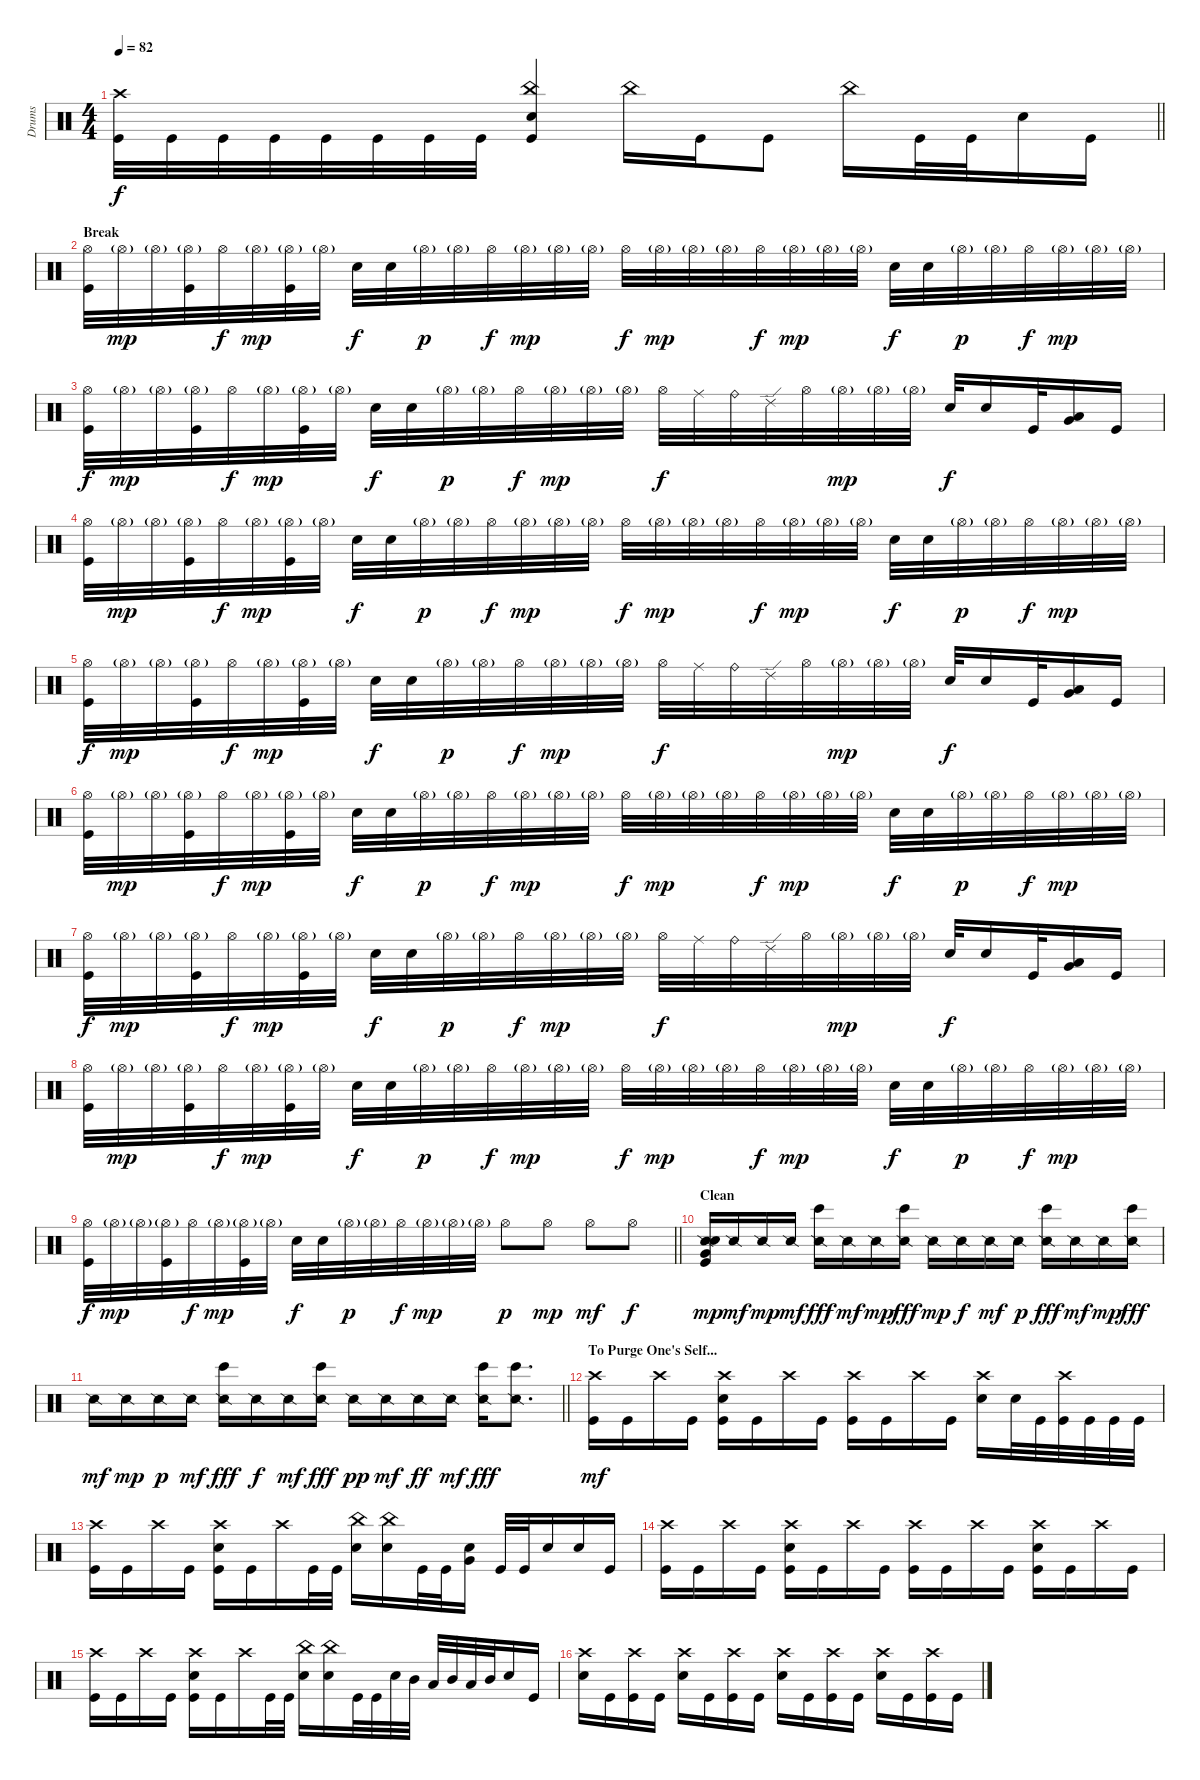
\track ("Drums" "Drums") {instrument percussion bank 177}
\staff {score}
\articulation defaults
\ts (4 4)
\tempo 82
\clef neutral
\barLineRight lightlight
\ks c
("Crash high (hit)" "Kick (hit)").32{dy f} "Kick (hit)".32 "Kick (hit)".32 "Kick (hit)".32 "Kick (hit)".32 "Kick (hit)".32 "Kick (hit)".32 "Kick (hit)".32 ("China (hit)" "Snare (hit) 2" "Kick (hit)").4 "China (hit)".16 "Kick (hit)".16 "Kick (hit)".8 "China (hit)".16 "Kick (hit)".32 "Kick (hit)".32 "Snare (hit) 2".16 "Kick (hit)".16 |
\section ("" "Break")
("Hi-Hat (open)" "Kick (hit)").32 "Hi-Hat (open)"{g}.32{dy mp} "Hi-Hat (open)"{g}.32 ("Hi-Hat (open)"{g} "Kick (hit)").32 "Hi-Hat (open)".32{dy f} "Hi-Hat (open)"{g}.32{dy mp} ("Hi-Hat (open)"{g} "Kick (hit)").32 "Hi-Hat (open)"{g}.32 "Snare (hit) 2".32{dy f} "Snare (hit) 2".32 "Hi-Hat (open)"{g}.32{dy p} "Hi-Hat (open)"{g}.32 "Hi-Hat (open)".32{dy f} "Hi-Hat (open)"{g}.32{dy mp} "Hi-Hat (open)"{g}.32 "Hi-Hat (open)"{g}.32 "Hi-Hat (open)".32{dy f} "Hi-Hat (open)"{g}.32{dy mp} "Hi-Hat (open)"{g}.32 "Hi-Hat (open)"{g}.32 "Hi-Hat (open)".32{dy f} "Hi-Hat (open)"{g}.32{dy mp} "Hi-Hat (open)"{g}.32 "Hi-Hat (open)"{g}.32 "Snare (hit) 2".32{dy f} "Snare (hit) 2".32 "Hi-Hat (open)"{g}.32{dy p} "Hi-Hat (open)"{g}.32 "Hi-Hat (open)".32{dy f} "Hi-Hat (open)"{g}.32{dy mp} "Hi-Hat (open)"{g}.32 "Hi-Hat (open)"{g}.32 |
("Hi-Hat (open)" "Kick (hit)").32{dy f} "Hi-Hat (open)"{g}.32{dy mp} "Hi-Hat (open)"{g}.32 ("Hi-Hat (open)"{g} "Kick (hit)").32 "Hi-Hat (open)".32{dy f} "Hi-Hat (open)"{g}.32{dy mp} ("Hi-Hat (open)"{g} "Kick (hit)").32 "Hi-Hat (open)"{g}.32 "Snare (hit) 2".32{dy f} "Snare (hit) 2".32 "Hi-Hat (open)"{g}.32{dy p} "Hi-Hat (open)"{g}.32 "Hi-Hat (open)".32{dy f} "Hi-Hat (open)"{g}.32{dy mp} "Hi-Hat (open)"{g}.32 "Hi-Hat (open)"{g}.32 "Hi-Hat (open)".32{dy f} "Ride (middle)".32 "Ride (bell)".32 "Ride (edge) 2".32 "Hi-Hat (open)".32 "Hi-Hat (open)"{g}.32{dy mp} "Hi-Hat (open)"{g}.32 "Hi-Hat (open)"{g}.32 "Snare (hit) 2".32{dy f} "Snare (hit) 2".16 "Kick (hit)".32 ("Low Tom (hit)" "Very Low Tom (hit)").16 "Kick (hit)".16 |
("Hi-Hat (open)" "Kick (hit)").32 "Hi-Hat (open)"{g}.32{dy mp} "Hi-Hat (open)"{g}.32 ("Hi-Hat (open)"{g} "Kick (hit)").32 "Hi-Hat (open)".32{dy f} "Hi-Hat (open)"{g}.32{dy mp} ("Hi-Hat (open)"{g} "Kick (hit)").32 "Hi-Hat (open)"{g}.32 "Snare (hit) 2".32{dy f} "Snare (hit) 2".32 "Hi-Hat (open)"{g}.32{dy p} "Hi-Hat (open)"{g}.32 "Hi-Hat (open)".32{dy f} "Hi-Hat (open)"{g}.32{dy mp} "Hi-Hat (open)"{g}.32 "Hi-Hat (open)"{g}.32 "Hi-Hat (open)".32{dy f} "Hi-Hat (open)"{g}.32{dy mp} "Hi-Hat (open)"{g}.32 "Hi-Hat (open)"{g}.32 "Hi-Hat (open)".32{dy f} "Hi-Hat (open)"{g}.32{dy mp} "Hi-Hat (open)"{g}.32 "Hi-Hat (open)"{g}.32 "Snare (hit) 2".32{dy f} "Snare (hit) 2".32 "Hi-Hat (open)"{g}.32{dy p} "Hi-Hat (open)"{g}.32 "Hi-Hat (open)".32{dy f} "Hi-Hat (open)"{g}.32{dy mp} "Hi-Hat (open)"{g}.32 "Hi-Hat (open)"{g}.32 |
("Hi-Hat (open)" "Kick (hit)").32{dy f} "Hi-Hat (open)"{g}.32{dy mp} "Hi-Hat (open)"{g}.32 ("Hi-Hat (open)"{g} "Kick (hit)").32 "Hi-Hat (open)".32{dy f} "Hi-Hat (open)"{g}.32{dy mp} ("Hi-Hat (open)"{g} "Kick (hit)").32 "Hi-Hat (open)"{g}.32 "Snare (hit) 2".32{dy f} "Snare (hit) 2".32 "Hi-Hat (open)"{g}.32{dy p} "Hi-Hat (open)"{g}.32 "Hi-Hat (open)".32{dy f} "Hi-Hat (open)"{g}.32{dy mp} "Hi-Hat (open)"{g}.32 "Hi-Hat (open)"{g}.32 "Hi-Hat (open)".32{dy f} "Ride (middle)".32 "Ride (bell)".32 "Ride (edge) 2".32 "Hi-Hat (open)".32 "Hi-Hat (open)"{g}.32{dy mp} "Hi-Hat (open)"{g}.32 "Hi-Hat (open)"{g}.32 "Snare (hit) 2".32{dy f} "Snare (hit) 2".16 "Kick (hit)".32 ("Low Tom (hit)" "Very Low Tom (hit)").16 "Kick (hit)".16 |
("Hi-Hat (open)" "Kick (hit)").32 "Hi-Hat (open)"{g}.32{dy mp} "Hi-Hat (open)"{g}.32 ("Hi-Hat (open)"{g} "Kick (hit)").32 "Hi-Hat (open)".32{dy f} "Hi-Hat (open)"{g}.32{dy mp} ("Hi-Hat (open)"{g} "Kick (hit)").32 "Hi-Hat (open)"{g}.32 "Snare (hit) 2".32{dy f} "Snare (hit) 2".32 "Hi-Hat (open)"{g}.32{dy p} "Hi-Hat (open)"{g}.32 "Hi-Hat (open)".32{dy f} "Hi-Hat (open)"{g}.32{dy mp} "Hi-Hat (open)"{g}.32 "Hi-Hat (open)"{g}.32 "Hi-Hat (open)".32{dy f} "Hi-Hat (open)"{g}.32{dy mp} "Hi-Hat (open)"{g}.32 "Hi-Hat (open)"{g}.32 "Hi-Hat (open)".32{dy f} "Hi-Hat (open)"{g}.32{dy mp} "Hi-Hat (open)"{g}.32 "Hi-Hat (open)"{g}.32 "Snare (hit) 2".32{dy f} "Snare (hit) 2".32 "Hi-Hat (open)"{g}.32{dy p} "Hi-Hat (open)"{g}.32 "Hi-Hat (open)".32{dy f} "Hi-Hat (open)"{g}.32{dy mp} "Hi-Hat (open)"{g}.32 "Hi-Hat (open)"{g}.32 |
("Hi-Hat (open)" "Kick (hit)").32{dy f} "Hi-Hat (open)"{g}.32{dy mp} "Hi-Hat (open)"{g}.32 ("Hi-Hat (open)"{g} "Kick (hit)").32 "Hi-Hat (open)".32{dy f} "Hi-Hat (open)"{g}.32{dy mp} ("Hi-Hat (open)"{g} "Kick (hit)").32 "Hi-Hat (open)"{g}.32 "Snare (hit) 2".32{dy f} "Snare (hit) 2".32 "Hi-Hat (open)"{g}.32{dy p} "Hi-Hat (open)"{g}.32 "Hi-Hat (open)".32{dy f} "Hi-Hat (open)"{g}.32{dy mp} "Hi-Hat (open)"{g}.32 "Hi-Hat (open)"{g}.32 "Hi-Hat (open)".32{dy f} "Ride (middle)".32 "Ride (bell)".32 "Ride (edge) 2".32 "Hi-Hat (open)".32 "Hi-Hat (open)"{g}.32{dy mp} "Hi-Hat (open)"{g}.32 "Hi-Hat (open)"{g}.32 "Snare (hit) 2".32{dy f} "Snare (hit) 2".16 "Kick (hit)".32 ("Low Tom (hit)" "Very Low Tom (hit)").16 "Kick (hit)".16 |
("Hi-Hat (open)" "Kick (hit)").32 "Hi-Hat (open)"{g}.32{dy mp} "Hi-Hat (open)"{g}.32 ("Hi-Hat (open)"{g} "Kick (hit)").32 "Hi-Hat (open)".32{dy f} "Hi-Hat (open)"{g}.32{dy mp} ("Hi-Hat (open)"{g} "Kick (hit)").32 "Hi-Hat (open)"{g}.32 "Snare (hit) 2".32{dy f} "Snare (hit) 2".32 "Hi-Hat (open)"{g}.32{dy p} "Hi-Hat (open)"{g}.32 "Hi-Hat (open)".32{dy f} "Hi-Hat (open)"{g}.32{dy mp} "Hi-Hat (open)"{g}.32 "Hi-Hat (open)"{g}.32 "Hi-Hat (open)".32{dy f} "Hi-Hat (open)"{g}.32{dy mp} "Hi-Hat (open)"{g}.32 "Hi-Hat (open)"{g}.32 "Hi-Hat (open)".32{dy f} "Hi-Hat (open)"{g}.32{dy mp} "Hi-Hat (open)"{g}.32 "Hi-Hat (open)"{g}.32 "Snare (hit) 2".32{dy f} "Snare (hit) 2".32 "Hi-Hat (open)"{g}.32{dy p} "Hi-Hat (open)"{g}.32 "Hi-Hat (open)".32{dy f} "Hi-Hat (open)"{g}.32{dy mp} "Hi-Hat (open)"{g}.32 "Hi-Hat (open)"{g}.32 |
\barLineRight lightlight
("Hi-Hat (open)" "Kick (hit)").32{dy f} "Hi-Hat (open)"{g}.32{dy mp} "Hi-Hat (open)"{g}.32 ("Hi-Hat (open)"{g} "Kick (hit)").32 "Hi-Hat (open)".32{dy f} "Hi-Hat (open)"{g}.32{dy mp} ("Hi-Hat (open)"{g} "Kick (hit)").32 "Hi-Hat (open)"{g}.32 "Snare (hit) 2".32{dy f} "Snare (hit) 2".32 "Hi-Hat (open)"{g}.32{dy p} "Hi-Hat (open)"{g}.32 "Hi-Hat (open)".32{dy f} "Hi-Hat (open)"{g}.32{dy mp} "Hi-Hat (open)"{g}.32 "Hi-Hat (open)"{g}.32 "Hi-Hat (open)".8{dy p} "Hi-Hat (open)".8{dy mp} "Hi-Hat (open)".8{dy mf} "Hi-Hat (open)".8{dy f} |
\section ("" "Clean")
("Snare (side stick) 2" "Very Low Tom (hit)" "Snare (hit) 2" "Kick (hit)").16{dy mp} "Snare (side stick) 2".16{dy mf} "Snare (side stick) 2".16{dy mp balance 0} "Snare (side stick) 2".16{dy mf balance 16} ("Snare (side stick) 2" "Bongo High (hit)").16{dy fff balance 0} "Snare (side stick) 2".16{dy mf balance 16} "Snare (side stick) 2".16{dy mp balance 0} ("Snare (side stick) 2" "Bongo High (hit)").16{dy fff balance 16} "Snare (side stick) 2".16{dy mp balance 0} "Snare (side stick) 2".16{dy f balance 16} "Snare (side stick) 2".16{dy mf balance 0} "Snare (side stick) 2".16{dy p balance 16} ("Snare (side stick) 2" "Bongo High (hit)").16{dy fff balance 0} "Snare (side stick) 2".16{dy mf balance 16} "Snare (side stick) 2".16{dy mp balance 0} ("Snare (side stick) 2" "Bongo High (hit)").16{dy fff balance 16} |
\barLineRight lightlight "Snare (side stick) 2".16{dy mf balance 0} "Snare (side stick) 2".16{dy mp balance 16} "Snare (side stick) 2".16{dy p balance 0} "Snare (side stick) 2".16{dy mf balance 16}
("Snare (side stick) 2" "Bongo High (hit)").16{dy fff balance 0} "Snare (side stick) 2".16{dy f balance 16} "Snare (side stick) 2".16{dy mf balance 0} ("Snare (side stick) 2" "Bongo High (hit)").16{dy fff balance 16} "Snare (side stick) 2".16{dy pp balance 0} "Snare (side stick) 2".16{dy mf balance 16} "Snare (side stick) 2".16{dy ff balance 0} "Snare (side stick) 2".16{dy mf balance 16} ("Snare (side stick) 2" "Bongo High (hit)").16{dy fff balance 0} ("Snare (side stick) 2" "Bongo High (hit)").8{d balance 16} |
\section ("" "To Purge One's Self...")
("Crash high (hit)" "Kick (hit)").16{dy mf} "Kick (hit)".16 "Crash high (hit)".16 "Kick (hit)".16 ("Crash high (hit)" "Snare (hit) 2" "Kick (hit)").16 "Kick (hit)".16 "Crash high (hit)".16 "Kick (hit)".16 ("Crash high (hit)" "Kick (hit)").16 "Kick (hit)".16 "Crash high (hit)".16 "Kick (hit)".16 ("Crash high (hit)" "Snare (hit) 2").16 "Snare (hit) 2".32 "Kick (hit)".32 ("Crash high (hit)" "Kick (hit)").32 "Kick (hit)".32 "Kick (hit)".32 "Kick (hit)".32 |
("Crash high (hit)" "Kick (hit)").16 "Kick (hit)".16 "Crash high (hit)".16 "Kick (hit)".16 ("Crash high (hit)" "Snare (hit) 2" "Kick (hit)").16 "Kick (hit)".16 "Crash high (hit)".16 "Kick (hit)".32 "Kick (hit)".32 ("China (hit)" "Snare (hit) 2").16 ("China (hit)" "Snare (hit) 2").16 "Kick (hit)".32 "Kick (hit)".32 ("Very Low Tom (hit)" "Snare (hit) 2").16 "Kick (hit)".32 "Kick (hit)".32 "Snare (hit) 2".16 "Snare (hit) 2".16 "Kick (hit)".16 |
("Crash high (hit)" "Kick (hit)").16 "Kick (hit)".16 "Crash high (hit)".16 "Kick (hit)".16 ("Crash high (hit)" "Snare (hit) 2" "Kick (hit)").16 "Kick (hit)".16 "Crash high (hit)".16 "Kick (hit)".16 ("Crash high (hit)" "Kick (hit)").16 "Kick (hit)".16 "Crash high (hit)".16 "Kick (hit)".16 ("Crash high (hit)" "Snare (hit) 2" "Kick (hit)").16 "Kick (hit)".16 "Crash high (hit)".16 "Kick (hit)".16 |
("Crash high (hit)" "Kick (hit)").16 "Kick (hit)".16 "Crash high (hit)".16 "Kick (hit)".16 ("Crash high (hit)" "Snare (hit) 2" "Kick (hit)").16 "Kick (hit)".16 "Crash high (hit)".16 "Kick (hit)".32 "Kick (hit)".32 ("China (hit)" "Snare (hit) 2").16 ("China (hit)" "Snare (hit) 2").16 "Kick (hit)".32 "Kick (hit)".32 "Snare (hit) 2".32 "Mid Tom (hit)".32 "Low Tom (hit)".32 "Mid Tom (hit)".32 "Low Tom (hit)".32 "Mid Tom (hit)".32 "Snare (hit) 2".16 "Kick (hit)".16 |
("Crash high (hit)" "Snare (hit) 2").16 "Kick (hit)".16 ("Crash high (hit)" "Kick (hit)").16 "Kick (hit)".16 ("Crash high (hit)" "Snare (hit) 2").16 "Kick (hit)".16 ("Crash high (hit)" "Kick (hit)").16 "Kick (hit)".16 ("Crash high (hit)" "Snare (hit) 2").16 "Kick (hit)".16 ("Crash high (hit)" "Kick (hit)").16 "Kick (hit)".16 ("Crash high (hit)" "Snare (hit) 2").16 "Kick (hit)".16 ("Crash high (hit)" "Kick (hit)").16 "Kick (hit)".16
